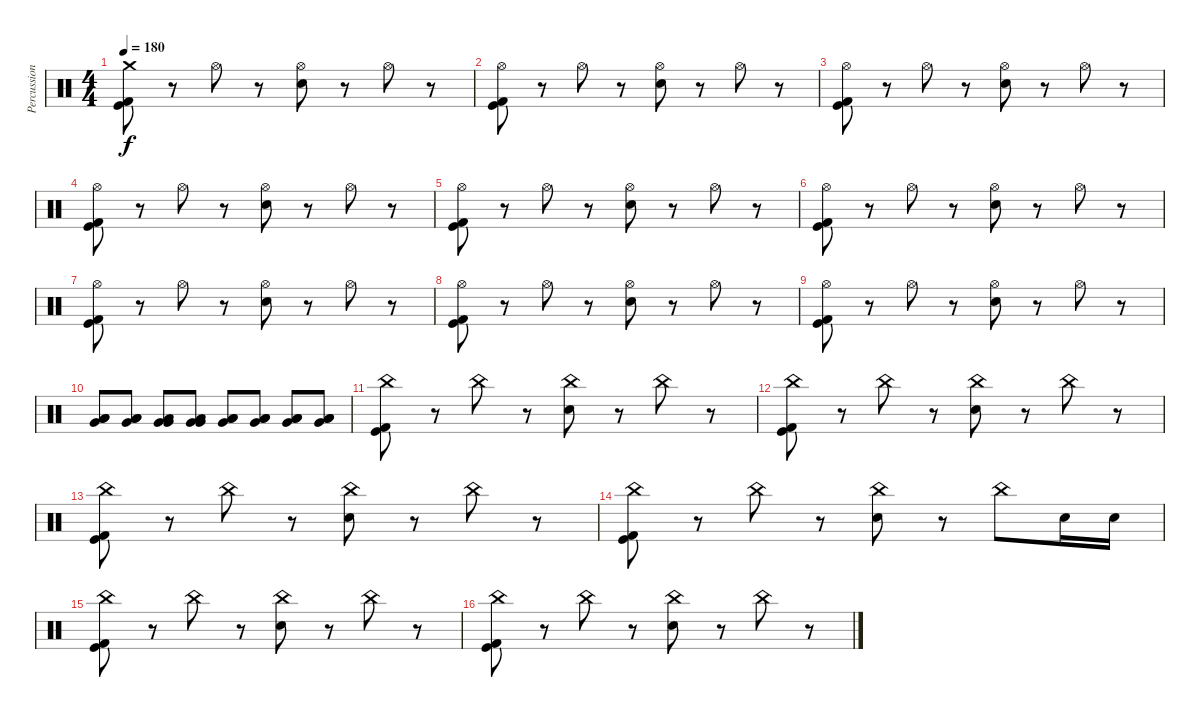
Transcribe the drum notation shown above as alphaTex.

\track ("Percussions" "Percussion") {instrument percussion}
\staff {score}
\articulation defaults
\ts (4 4)
\tempo 180
\clef neutral
\ks c
("Crash medium (hit)" "Kick (hit) 2" "Kick (hit)").8{dy f} r.8 "Hi-Hat (open)".8 r.8 ("Hi-Hat (open)" "Electric Snare (hit)").8 r.8 "Hi-Hat (open)".8 r.8 |
("Hi-Hat (open)" "Kick (hit) 2" "Kick (hit)").8 r.8 "Hi-Hat (open)".8 r.8 ("Hi-Hat (open)" "Electric Snare (hit)").8 r.8 "Hi-Hat (open)".8 r.8 |
("Hi-Hat (open)" "Kick (hit) 2" "Kick (hit)").8 r.8 "Hi-Hat (open)".8 r.8 ("Hi-Hat (open)" "Electric Snare (hit)").8 r.8 "Hi-Hat (open)".8 r.8 |
("Hi-Hat (open)" "Kick (hit) 2" "Kick (hit)").8 r.8 "Hi-Hat (open)".8 r.8 ("Hi-Hat (open)" "Electric Snare (hit)").8 r.8 "Hi-Hat (open)".8 r.8 |
("Hi-Hat (open)" "Kick (hit) 2" "Kick (hit)").8 r.8 "Hi-Hat (open)".8 r.8 ("Hi-Hat (open)" "Electric Snare (hit)").8 r.8 "Hi-Hat (open)".8 r.8 |
("Hi-Hat (open)" "Kick (hit) 2" "Kick (hit)").8 r.8 "Hi-Hat (open)".8 r.8 ("Hi-Hat (open)" "Electric Snare (hit)").8 r.8 "Hi-Hat (open)".8 r.8 |
("Hi-Hat (open)" "Kick (hit) 2" "Kick (hit)").8 r.8 "Hi-Hat (open)".8 r.8 ("Hi-Hat (open)" "Electric Snare (hit)").8 r.8 "Hi-Hat (open)".8 r.8 |
("Hi-Hat (open)" "Kick (hit) 2" "Kick (hit)").8 r.8 "Hi-Hat (open)".8 r.8 ("Hi-Hat (open)" "Electric Snare (hit)").8 r.8 "Hi-Hat (open)".8 r.8 |
("Hi-Hat (open)" "Kick (hit) 2" "Kick (hit)").8 r.8 "Hi-Hat (open)".8 r.8 ("Hi-Hat (open)" "Electric Snare (hit)").8 r.8 "Hi-Hat (open)".8 r.8 |
("Low Tom (hit)" "Low Tom (hit)" "Very Low Tom (hit)").8 ("Low Tom (hit)" "Low Tom (hit)" "Very Low Tom (hit)").8 ("Low Tom (hit)" "Very Low Tom (hit)" "Very Low Tom (hit)").8 ("Low Tom (hit)" "Very Low Tom (hit)" "Very Low Tom (hit)").8 ("Very Low Tom (hit)" "Low Floor Tom (hit)" "Low Floor Tom (hit)").8 ("Very Low Tom (hit)" "Low Floor Tom (hit)" "Low Floor Tom (hit)").8 ("Very Low Tom (hit)" "Low Floor Tom (hit)" "Low Floor Tom (hit)").8 ("Very Low Tom (hit)" "Low Floor Tom (hit)" "Low Floor Tom (hit)").8 |
("China (hit)" "Kick (hit) 2" "Kick (hit)").8 r.8 "China (hit)".8 r.8 ("China (hit)" "Electric Snare (hit)").8 r.8 "China (hit)".8 r.8 |
("China (hit)" "Kick (hit) 2" "Kick (hit)").8 r.8 "China (hit)".8 r.8 ("China (hit)" "Electric Snare (hit)").8 r.8 "China (hit)".8 r.8 |
("China (hit)" "Kick (hit) 2" "Kick (hit)").8 r.8 "China (hit)".8 r.8 ("China (hit)" "Electric Snare (hit)").8 r.8 "China (hit)".8 r.8 |
("China (hit)" "Kick (hit) 2" "Kick (hit)").8 r.8 "China (hit)".8 r.8 ("China (hit)" "Electric Snare (hit)").8 r.8 "China (hit)".8 "Electric Snare (hit)".16 "Electric Snare (hit)".16 |
("China (hit)" "Kick (hit) 2" "Kick (hit)").8 r.8 "China (hit)".8 r.8 ("China (hit)" "Electric Snare (hit)").8 r.8 "China (hit)".8 r.8 |
("China (hit)" "Kick (hit) 2" "Kick (hit)").8 r.8 "China (hit)".8 r.8 ("China (hit)" "Electric Snare (hit)").8 r.8 "China (hit)".8 r.8
